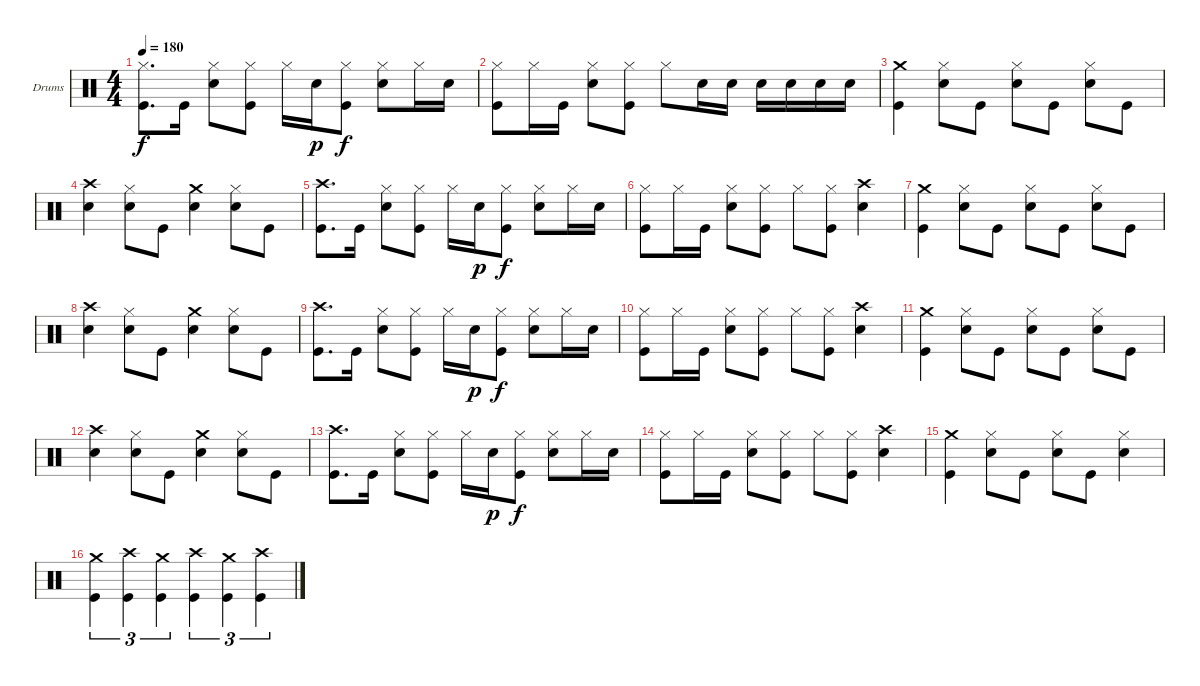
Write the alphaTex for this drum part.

\bracketExtendMode groupsimilarinstruments
\firstSystemTrackNameOrientation horizontal
\otherSystemsTrackNameOrientation horizontal
\track ("Drumkit" "Drums") {instrument percussion}
\staff {score}
\articulation defaults
\ts (4 4)
\tempo 180
\clef neutral
\ks c
("Hi-Hat (closed)" "Kick (hit)").8{d dy f} "Kick (hit)".16 ("Hi-Hat (closed)" "Snare (hit) 2").8 ("Hi-Hat (closed)" "Kick (hit)").8 "Hi-Hat (closed)".16 "Snare (hit) 2".16{dy p} ("Hi-Hat (closed)" "Kick (hit)").8{dy f} ("Hi-Hat (closed)" "Snare (hit) 2").8 "Hi-Hat (closed)".16 "Snare (hit) 2".16 |
("Hi-Hat (closed)" "Kick (hit)").8 "Hi-Hat (closed)".16 "Kick (hit)".16 ("Hi-Hat (closed)" "Snare (hit) 2").8 ("Hi-Hat (closed)" "Kick (hit)").8 "Hi-Hat (closed)".8 "Snare (hit) 2".16 "Snare (hit) 2".16 "Snare (hit) 2".16 "Snare (hit) 2".16 "Snare (hit) 2".16 "Snare (hit) 2".16 |
("Crash medium (hit)" "Kick (hit)").4 ("Hi-Hat (closed)" "Snare (hit) 2").8 "Kick (hit)".8 ("Hi-Hat (closed)" "Snare (hit) 2").8 "Kick (hit)".8 ("Hi-Hat (closed)" "Snare (hit) 2").8 "Kick (hit)".8 |
("Crash high (hit)" "Snare (hit) 2").4 ("Hi-Hat (closed)" "Snare (hit) 2").8 "Kick (hit)".8 ("Crash medium (hit)" "Snare (hit) 2").4 ("Hi-Hat (closed)" "Snare (hit) 2").8 "Kick (hit)".8 |
("Crash high (hit)" "Kick (hit)").8{d} "Kick (hit)".16 ("Hi-Hat (closed)" "Snare (hit) 2").8 ("Hi-Hat (closed)" "Kick (hit)").8 "Hi-Hat (closed)".16 "Snare (hit) 2".16{dy p} ("Hi-Hat (closed)" "Kick (hit)").8{dy f} ("Hi-Hat (closed)" "Snare (hit) 2").8 "Hi-Hat (closed)".16 "Snare (hit) 2".16 |
("Hi-Hat (closed)" "Kick (hit)").8 "Hi-Hat (closed)".16 "Kick (hit)".16 ("Hi-Hat (closed)" "Snare (hit) 2").8 ("Hi-Hat (closed)" "Kick (hit)").8 "Hi-Hat (closed)".8 ("Hi-Hat (closed)" "Kick (hit)").8 ("Crash high (hit)" "Snare (hit) 2").4 |
("Crash medium (hit)" "Kick (hit)").4 ("Hi-Hat (closed)" "Snare (hit) 2").8 "Kick (hit)".8 ("Hi-Hat (closed)" "Snare (hit) 2").8 "Kick (hit)".8 ("Hi-Hat (closed)" "Snare (hit) 2").8 "Kick (hit)".8 |
("Crash high (hit)" "Snare (hit) 2").4 ("Hi-Hat (closed)" "Snare (hit) 2").8 "Kick (hit)".8 ("Crash medium (hit)" "Snare (hit) 2").4 ("Hi-Hat (closed)" "Snare (hit) 2").8 "Kick (hit)".8 |
("Crash high (hit)" "Kick (hit)").8{d} "Kick (hit)".16 ("Hi-Hat (closed)" "Snare (hit) 2").8 ("Hi-Hat (closed)" "Kick (hit)").8 "Hi-Hat (closed)".16 "Snare (hit) 2".16{dy p} ("Hi-Hat (closed)" "Kick (hit)").8{dy f} ("Hi-Hat (closed)" "Snare (hit) 2").8 "Hi-Hat (closed)".16 "Snare (hit) 2".16 |
("Hi-Hat (closed)" "Kick (hit)").8 "Hi-Hat (closed)".16 "Kick (hit)".16 ("Hi-Hat (closed)" "Snare (hit) 2").8 ("Hi-Hat (closed)" "Kick (hit)").8 "Hi-Hat (closed)".8 ("Hi-Hat (closed)" "Kick (hit)").8 ("Crash high (hit)" "Snare (hit) 2").4 |
("Crash medium (hit)" "Kick (hit)").4 ("Hi-Hat (closed)" "Snare (hit) 2").8 "Kick (hit)".8 ("Hi-Hat (closed)" "Snare (hit) 2").8 "Kick (hit)".8 ("Hi-Hat (closed)" "Snare (hit) 2").8 "Kick (hit)".8 |
("Crash high (hit)" "Snare (hit) 2").4 ("Hi-Hat (closed)" "Snare (hit) 2").8 "Kick (hit)".8 ("Crash medium (hit)" "Snare (hit) 2").4 ("Hi-Hat (closed)" "Snare (hit) 2").8 "Kick (hit)".8 |
("Crash high (hit)" "Kick (hit)").8{d} "Kick (hit)".16 ("Hi-Hat (closed)" "Snare (hit) 2").8 ("Hi-Hat (closed)" "Kick (hit)").8 "Hi-Hat (closed)".16 "Snare (hit) 2".16{dy p} ("Hi-Hat (closed)" "Kick (hit)").8{dy f} ("Hi-Hat (closed)" "Snare (hit) 2").8 "Hi-Hat (closed)".16 "Snare (hit) 2".16 |
("Hi-Hat (closed)" "Kick (hit)").8 "Hi-Hat (closed)".16 "Kick (hit)".16 ("Hi-Hat (closed)" "Snare (hit) 2").8 ("Hi-Hat (closed)" "Kick (hit)").8 "Hi-Hat (closed)".8 ("Hi-Hat (closed)" "Kick (hit)").8 ("Crash high (hit)" "Snare (hit) 2").4 |
("Crash medium (hit)" "Kick (hit)").4 ("Hi-Hat (closed)" "Snare (hit) 2").8 "Kick (hit)".8 ("Hi-Hat (closed)" "Snare (hit) 2").8 "Kick (hit)".8 ("Hi-Hat (closed)" "Snare (hit) 2").4 |
("Crash medium (hit)" "Kick (hit)").4{tu (3 2)} ("Crash high (hit)" "Kick (hit)").4{tu (3 2)} ("Crash medium (hit)" "Kick (hit)").4{tu (3 2)} ("Crash high (hit)" "Kick (hit)").4{tu (3 2)} ("Crash medium (hit)" "Kick (hit)").4{tu (3 2)} ("Crash high (hit)" "Kick (hit)").4{tu (3 2)}
